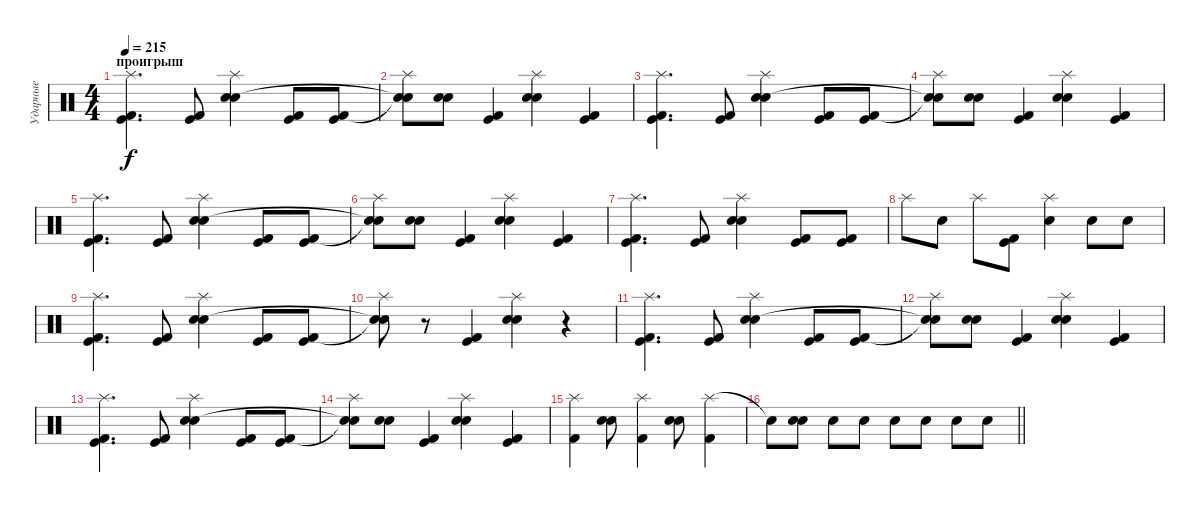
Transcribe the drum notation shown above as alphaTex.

\track ("Ударные" "Ударные") {instrument percussion}
\staff {score}
\articulation defaults
\ts (4 4)
\section ("" "проигрыш")
\tempo 215
\clef neutral
\ks c
("Splash (hit)" "Kick (hit)" "Kick (hit) 2").4{d dy f} ("Kick (hit)" "Kick (hit) 2").8 ("Splash (hit)" "Electric Snare (hit)" "Snare (hit) 2").4 ("Kick (hit)" "Kick (hit) 2").8 ("Kick (hit)" "Kick (hit) 2").8 |
("Splash (hit)" "Snare (hit)"{t} "Snare (hit)"{t}).8 ("Electric Snare (hit)" "Snare (hit) 2").8 ("Kick (hit)" "Kick (hit) 2").4 ("Splash (hit)" "Electric Snare (hit)" "Snare (hit) 2").4 ("Kick (hit)" "Kick (hit) 2").4 |
("Splash (hit)" "Kick (hit)" "Kick (hit) 2").4{d} ("Kick (hit)" "Kick (hit) 2").8 ("Splash (hit)" "Electric Snare (hit)" "Snare (hit) 2").4 ("Kick (hit)" "Kick (hit) 2").8 ("Kick (hit)" "Kick (hit) 2").8 |
("Splash (hit)" "Snare (hit)"{t} "Snare (hit)"{t}).8 ("Electric Snare (hit)" "Snare (hit) 2").8 ("Kick (hit)" "Kick (hit) 2").4 ("Splash (hit)" "Electric Snare (hit)" "Snare (hit) 2").4 ("Kick (hit)" "Kick (hit) 2").4 |
("Splash (hit)" "Kick (hit)" "Kick (hit) 2").4{d} ("Kick (hit)" "Kick (hit) 2").8 ("Splash (hit)" "Electric Snare (hit)" "Snare (hit) 2").4 ("Kick (hit)" "Kick (hit) 2").8 ("Kick (hit)" "Kick (hit) 2").8 |
("Splash (hit)" "Snare (hit)"{t} "Snare (hit)"{t}).8 ("Electric Snare (hit)" "Snare (hit) 2").8 ("Kick (hit)" "Kick (hit) 2").4 ("Splash (hit)" "Electric Snare (hit)" "Snare (hit) 2").4 ("Kick (hit)" "Kick (hit) 2").4 |
("Splash (hit)" "Kick (hit)" "Kick (hit) 2").4{d} ("Kick (hit)" "Kick (hit) 2").8 ("Splash (hit)" "Electric Snare (hit)" "Snare (hit) 2").4 ("Kick (hit)" "Kick (hit) 2").8 ("Kick (hit)" "Kick (hit) 2").8 |
"Splash (hit)".8 "Electric Snare (hit)".8 "Splash (hit)".8 ("Kick (hit)" "Kick (hit) 2").8 ("Splash (hit)" "Electric Snare (hit)").4 "Electric Snare (hit)".8 "Electric Snare (hit)".8 |
("Splash (hit)" "Kick (hit)" "Kick (hit) 2").4{d} ("Kick (hit)" "Kick (hit) 2").8 ("Splash (hit)" "Electric Snare (hit)" "Snare (hit) 2").4 ("Kick (hit)" "Kick (hit) 2").8 ("Kick (hit)" "Kick (hit) 2").8 |
("Splash (hit)" "Snare (hit)"{t} "Snare (hit)"{t}).8 r.8 ("Kick (hit)" "Kick (hit) 2").4 ("Splash (hit)" "Electric Snare (hit)" "Snare (hit) 2").4 r.4 |
("Splash (hit)" "Kick (hit)" "Kick (hit) 2").4{d} ("Kick (hit)" "Kick (hit) 2").8 ("Splash (hit)" "Electric Snare (hit)" "Snare (hit) 2").4 ("Kick (hit)" "Kick (hit) 2").8 ("Kick (hit)" "Kick (hit) 2").8 |
("Splash (hit)" "Snare (hit)"{t} "Snare (hit)"{t}).8 ("Electric Snare (hit)" "Snare (hit) 2").8 ("Kick (hit)" "Kick (hit) 2").4 ("Splash (hit)" "Electric Snare (hit)" "Snare (hit) 2").4 ("Kick (hit)" "Kick (hit) 2").4 |
("Splash (hit)" "Kick (hit)" "Kick (hit) 2").4{d} ("Kick (hit)" "Kick (hit) 2").8 ("Splash (hit)" "Electric Snare (hit)" "Snare (hit) 2").4 ("Kick (hit)" "Kick (hit) 2").8 ("Kick (hit)" "Kick (hit) 2").8 |
("Splash (hit)" "Snare (hit)"{t} "Snare (hit)"{t}).8 ("Electric Snare (hit)" "Snare (hit) 2").8 ("Kick (hit)" "Kick (hit) 2").4 ("Splash (hit)" "Electric Snare (hit)" "Snare (hit) 2").4 ("Kick (hit)" "Kick (hit) 2").4 |
("Splash (hit)" "Kick (hit) 2").4 ("Electric Snare (hit)" "Snare (hit) 2").8 ("Splash (hit)" "Kick (hit) 2").4 ("Electric Snare (hit)" "Snare (hit) 2").8 ("Splash (hit)" "Kick (hit) 2").4 |
\barLineRight lightlight "Snare (hit)"{t}.8
("Electric Snare (hit)" "Snare (hit) 2").8 "Electric Snare (hit)".8 "Electric Snare (hit)".8 "Electric Snare (hit)".8 "Electric Snare (hit)".8 "Electric Snare (hit)".8 "Electric Snare (hit)".8
